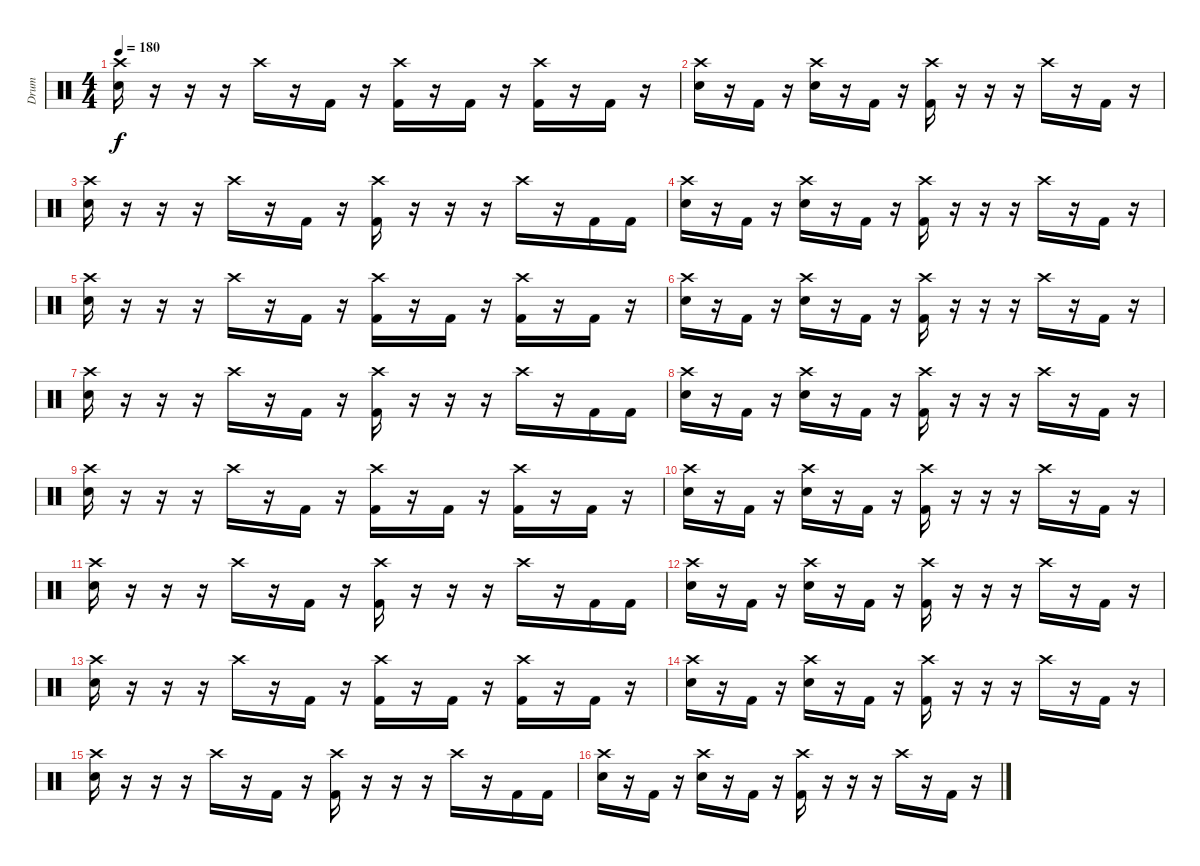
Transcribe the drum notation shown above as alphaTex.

\track ("Drum" "Drum") {instrument percussion}
\staff {score}
\articulation defaults
\ts (4 4)
\tempo 180
\clef neutral
\ks c
("Crash high (hit)" "Electric Snare (hit)").16{dy f} r.16 r.16 r.16 "Crash high (hit)".16 r.16 "Kick (hit) 2".16 r.16 ("Crash high (hit)" "Kick (hit) 2").16 r.16 "Kick (hit) 2".16 r.16 ("Crash high (hit)" "Kick (hit) 2").16 r.16 "Kick (hit) 2".16 r.16 |
("Crash high (hit)" "Electric Snare (hit)").16 r.16 "Kick (hit) 2".16 r.16 ("Crash high (hit)" "Electric Snare (hit)").16 r.16 "Kick (hit) 2".16 r.16 ("Crash high (hit)" "Kick (hit) 2").16 r.16 r.16 r.16 "Crash high (hit)".16 r.16 "Kick (hit) 2".16 r.16 |
("Crash high (hit)" "Electric Snare (hit)").16 r.16 r.16 r.16 "Crash high (hit)".16 r.16 "Kick (hit) 2".16 r.16 ("Crash high (hit)" "Kick (hit) 2").16 r.16 r.16 r.16 "Crash high (hit)".16 r.16 "Kick (hit) 2".16 "Kick (hit) 2".16 |
("Crash high (hit)" "Electric Snare (hit)").16 r.16 "Kick (hit) 2".16 r.16 ("Crash high (hit)" "Electric Snare (hit)").16 r.16 "Kick (hit) 2".16 r.16 ("Crash high (hit)" "Kick (hit) 2").16 r.16 r.16 r.16 "Crash high (hit)".16 r.16 "Kick (hit) 2".16 r.16 |
("Crash high (hit)" "Electric Snare (hit)").16 r.16 r.16 r.16 "Crash high (hit)".16 r.16 "Kick (hit) 2".16 r.16 ("Crash high (hit)" "Kick (hit) 2").16 r.16 "Kick (hit) 2".16 r.16 ("Crash high (hit)" "Kick (hit) 2").16 r.16 "Kick (hit) 2".16 r.16 |
("Crash high (hit)" "Electric Snare (hit)").16 r.16 "Kick (hit) 2".16 r.16 ("Crash high (hit)" "Electric Snare (hit)").16 r.16 "Kick (hit) 2".16 r.16 ("Crash high (hit)" "Kick (hit) 2").16 r.16 r.16 r.16 "Crash high (hit)".16 r.16 "Kick (hit) 2".16 r.16 |
("Crash high (hit)" "Electric Snare (hit)").16 r.16 r.16 r.16 "Crash high (hit)".16 r.16 "Kick (hit) 2".16 r.16 ("Crash high (hit)" "Kick (hit) 2").16 r.16 r.16 r.16 "Crash high (hit)".16 r.16 "Kick (hit) 2".16 "Kick (hit) 2".16 |
("Crash high (hit)" "Electric Snare (hit)").16 r.16 "Kick (hit) 2".16 r.16 ("Crash high (hit)" "Electric Snare (hit)").16 r.16 "Kick (hit) 2".16 r.16 ("Crash high (hit)" "Kick (hit) 2").16 r.16 r.16 r.16 "Crash high (hit)".16 r.16 "Kick (hit) 2".16 r.16 |
("Crash high (hit)" "Electric Snare (hit)").16 r.16 r.16 r.16 "Crash high (hit)".16 r.16 "Kick (hit) 2".16 r.16 ("Crash high (hit)" "Kick (hit) 2").16 r.16 "Kick (hit) 2".16 r.16 ("Crash high (hit)" "Kick (hit) 2").16 r.16 "Kick (hit) 2".16 r.16 |
("Crash high (hit)" "Electric Snare (hit)").16 r.16 "Kick (hit) 2".16 r.16 ("Crash high (hit)" "Electric Snare (hit)").16 r.16 "Kick (hit) 2".16 r.16 ("Crash high (hit)" "Kick (hit) 2").16 r.16 r.16 r.16 "Crash high (hit)".16 r.16 "Kick (hit) 2".16 r.16 |
("Crash high (hit)" "Electric Snare (hit)").16 r.16 r.16 r.16 "Crash high (hit)".16 r.16 "Kick (hit) 2".16 r.16 ("Crash high (hit)" "Kick (hit) 2").16 r.16 r.16 r.16 "Crash high (hit)".16 r.16 "Kick (hit) 2".16 "Kick (hit) 2".16 |
("Crash high (hit)" "Electric Snare (hit)").16 r.16 "Kick (hit) 2".16 r.16 ("Crash high (hit)" "Electric Snare (hit)").16 r.16 "Kick (hit) 2".16 r.16 ("Crash high (hit)" "Kick (hit) 2").16 r.16 r.16 r.16 "Crash high (hit)".16 r.16 "Kick (hit) 2".16 r.16 |
("Crash high (hit)" "Electric Snare (hit)").16 r.16 r.16 r.16 "Crash high (hit)".16 r.16 "Kick (hit) 2".16 r.16 ("Crash high (hit)" "Kick (hit) 2").16 r.16 "Kick (hit) 2".16 r.16 ("Crash high (hit)" "Kick (hit) 2").16 r.16 "Kick (hit) 2".16 r.16 |
("Crash high (hit)" "Electric Snare (hit)").16 r.16 "Kick (hit) 2".16 r.16 ("Crash high (hit)" "Electric Snare (hit)").16 r.16 "Kick (hit) 2".16 r.16 ("Crash high (hit)" "Kick (hit) 2").16 r.16 r.16 r.16 "Crash high (hit)".16 r.16 "Kick (hit) 2".16 r.16 |
("Crash high (hit)" "Electric Snare (hit)").16 r.16 r.16 r.16 "Crash high (hit)".16 r.16 "Kick (hit) 2".16 r.16 ("Crash high (hit)" "Kick (hit) 2").16 r.16 r.16 r.16 "Crash high (hit)".16 r.16 "Kick (hit) 2".16 "Kick (hit) 2".16 |
("Crash high (hit)" "Electric Snare (hit)").16 r.16 "Kick (hit) 2".16 r.16 ("Crash high (hit)" "Electric Snare (hit)").16 r.16 "Kick (hit) 2".16 r.16 ("Crash high (hit)" "Kick (hit) 2").16 r.16 r.16 r.16 "Crash high (hit)".16 r.16 "Kick (hit) 2".16 r.16
